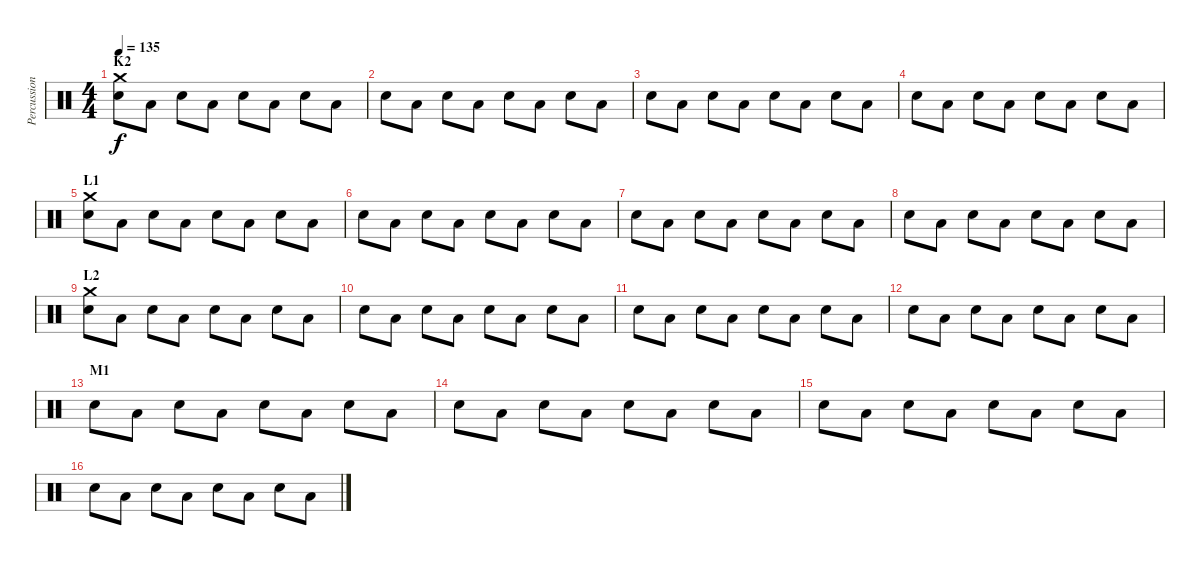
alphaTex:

\track ("Percussion" "Percussion") {instrument percussion}
\staff {score}
\articulation defaults
\ts (4 4)
\section ("" "K2")
\tempo 135
\clef neutral
\ks c
("Electric Snare (hit)" "Crash medium (hit)").8{dy f} "Low Floor Tom (hit)".8 "Electric Snare (hit)".8 "Low Floor Tom (hit)".8 "Electric Snare (hit)".8 "Low Floor Tom (hit)".8 "Electric Snare (hit)".8 "Low Floor Tom (hit)".8 |
"Electric Snare (hit)".8 "Low Floor Tom (hit)".8 "Electric Snare (hit)".8 "Low Floor Tom (hit)".8 "Electric Snare (hit)".8 "Low Floor Tom (hit)".8 "Electric Snare (hit)".8 "Low Floor Tom (hit)".8 |
"Electric Snare (hit)".8 "Low Floor Tom (hit)".8 "Electric Snare (hit)".8 "Low Floor Tom (hit)".8 "Electric Snare (hit)".8 "Low Floor Tom (hit)".8 "Electric Snare (hit)".8 "Low Floor Tom (hit)".8 |
"Electric Snare (hit)".8 "Low Floor Tom (hit)".8 "Electric Snare (hit)".8 "Low Floor Tom (hit)".8 "Electric Snare (hit)".8 "Low Floor Tom (hit)".8 "Electric Snare (hit)".8 "Low Floor Tom (hit)".8 |
\section ("" "L1")
("Electric Snare (hit)" "Crash medium (hit)").8 "Low Floor Tom (hit)".8 "Electric Snare (hit)".8 "Low Floor Tom (hit)".8 "Electric Snare (hit)".8 "Low Floor Tom (hit)".8 "Electric Snare (hit)".8 "Low Floor Tom (hit)".8 |
"Electric Snare (hit)".8 "Low Floor Tom (hit)".8 "Electric Snare (hit)".8 "Low Floor Tom (hit)".8 "Electric Snare (hit)".8 "Low Floor Tom (hit)".8 "Electric Snare (hit)".8 "Low Floor Tom (hit)".8 |
"Electric Snare (hit)".8 "Low Floor Tom (hit)".8 "Electric Snare (hit)".8 "Low Floor Tom (hit)".8 "Electric Snare (hit)".8 "Low Floor Tom (hit)".8 "Electric Snare (hit)".8 "Low Floor Tom (hit)".8 |
"Electric Snare (hit)".8 "Low Floor Tom (hit)".8 "Electric Snare (hit)".8 "Low Floor Tom (hit)".8 "Electric Snare (hit)".8 "Low Floor Tom (hit)".8 "Electric Snare (hit)".8 "Low Floor Tom (hit)".8 |
\section ("" "L2")
("Electric Snare (hit)" "Crash medium (hit)").8 "Low Floor Tom (hit)".8 "Electric Snare (hit)".8 "Low Floor Tom (hit)".8 "Electric Snare (hit)".8 "Low Floor Tom (hit)".8 "Electric Snare (hit)".8 "Low Floor Tom (hit)".8 |
"Electric Snare (hit)".8 "Low Floor Tom (hit)".8 "Electric Snare (hit)".8 "Low Floor Tom (hit)".8 "Electric Snare (hit)".8 "Low Floor Tom (hit)".8 "Electric Snare (hit)".8 "Low Floor Tom (hit)".8 |
"Electric Snare (hit)".8 "Low Floor Tom (hit)".8 "Electric Snare (hit)".8 "Low Floor Tom (hit)".8 "Electric Snare (hit)".8 "Low Floor Tom (hit)".8 "Electric Snare (hit)".8 "Low Floor Tom (hit)".8 |
"Electric Snare (hit)".8 "Low Floor Tom (hit)".8 "Electric Snare (hit)".8 "Low Floor Tom (hit)".8 "Electric Snare (hit)".8 "Low Floor Tom (hit)".8 "Electric Snare (hit)".8 "Low Floor Tom (hit)".8 |
\section ("" "M1")
"Electric Snare (hit)".8 "Low Floor Tom (hit)".8 "Electric Snare (hit)".8 "Low Floor Tom (hit)".8 "Electric Snare (hit)".8 "Low Floor Tom (hit)".8 "Electric Snare (hit)".8 "Low Floor Tom (hit)".8 |
"Electric Snare (hit)".8 "Low Floor Tom (hit)".8 "Electric Snare (hit)".8 "Low Floor Tom (hit)".8 "Electric Snare (hit)".8 "Low Floor Tom (hit)".8 "Electric Snare (hit)".8 "Low Floor Tom (hit)".8 |
"Electric Snare (hit)".8 "Low Floor Tom (hit)".8 "Electric Snare (hit)".8 "Low Floor Tom (hit)".8 "Electric Snare (hit)".8 "Low Floor Tom (hit)".8 "Electric Snare (hit)".8 "Low Floor Tom (hit)".8 |
"Electric Snare (hit)".8 "Low Floor Tom (hit)".8 "Electric Snare (hit)".8 "Low Floor Tom (hit)".8 "Electric Snare (hit)".8 "Low Floor Tom (hit)".8 "Electric Snare (hit)".8 "Low Floor Tom (hit)".8
